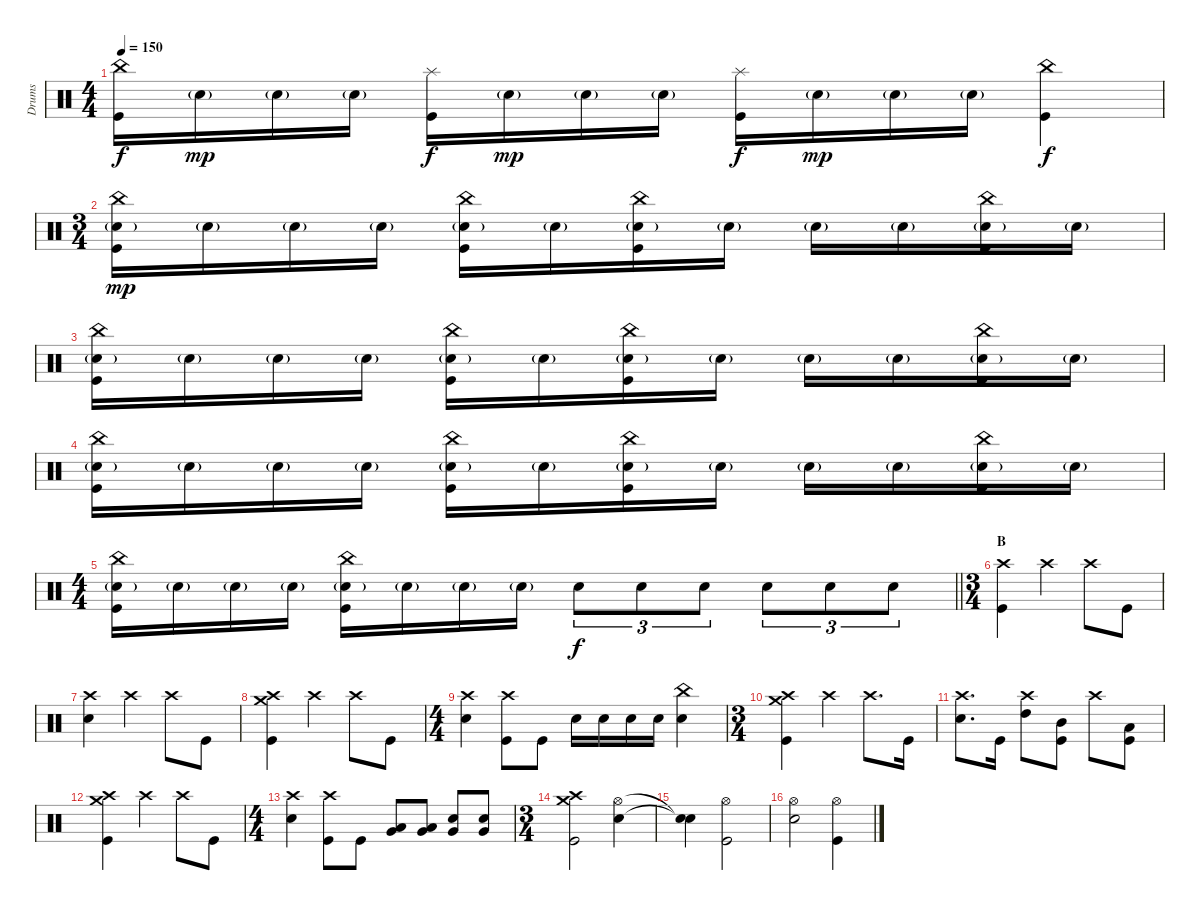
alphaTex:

\track ("Drums" "Drums") {instrument percussion}
\staff {score}
\articulation defaults
\ts (4 4)
\tempo 150
\clef neutral
\ks c
("China (hit)" "Kick (hit)").16{dy f} "Electric Snare (hit)"{g}.16{dy mp} "Electric Snare (hit)"{g}.16 "Electric Snare (hit)"{g}.16 ("Splash (hit)" "Kick (hit)").16{dy f} "Electric Snare (hit)"{g}.16{dy mp} "Electric Snare (hit)"{g}.16 "Electric Snare (hit)"{g}.16 ("Splash (hit)" "Kick (hit)").16{dy f} "Electric Snare (hit)"{g}.16{dy mp} "Electric Snare (hit)"{g}.16 "Electric Snare (hit)"{g}.16 ("China (hit)" "Kick (hit)").4{dy f} |
\ts (3 4)
("China (hit)" "Electric Snare (hit)"{g} "Kick (hit)").16{dy mp} "Electric Snare (hit)"{g}.16 "Electric Snare (hit)"{g}.16 "Electric Snare (hit)"{g}.16 ("China (hit)" "Electric Snare (hit)"{g} "Kick (hit)").16 "Electric Snare (hit)"{g}.16 ("China (hit)" "Electric Snare (hit)"{g} "Kick (hit)").16 "Electric Snare (hit)"{g}.16 "Electric Snare (hit)"{g}.16 "Electric Snare (hit)"{g}.16 ("China (hit)" "Electric Snare (hit)"{g} "Kick (hit)").16 "Electric Snare (hit)"{g}.16 |
("China (hit)" "Electric Snare (hit)"{g} "Kick (hit)").16 "Electric Snare (hit)"{g}.16 "Electric Snare (hit)"{g}.16 "Electric Snare (hit)"{g}.16 ("China (hit)" "Electric Snare (hit)"{g} "Kick (hit)").16 "Electric Snare (hit)"{g}.16 ("China (hit)" "Electric Snare (hit)"{g} "Kick (hit)").16 "Electric Snare (hit)"{g}.16 "Electric Snare (hit)"{g}.16 "Electric Snare (hit)"{g}.16 ("China (hit)" "Electric Snare (hit)"{g} "Kick (hit)").16 "Electric Snare (hit)"{g}.16 |
("China (hit)" "Electric Snare (hit)"{g} "Kick (hit)").16 "Electric Snare (hit)"{g}.16 "Electric Snare (hit)"{g}.16 "Electric Snare (hit)"{g}.16 ("China (hit)" "Electric Snare (hit)"{g} "Kick (hit)").16 "Electric Snare (hit)"{g}.16 ("China (hit)" "Electric Snare (hit)"{g} "Kick (hit)").16 "Electric Snare (hit)"{g}.16 "Electric Snare (hit)"{g}.16 "Electric Snare (hit)"{g}.16 ("China (hit)" "Electric Snare (hit)"{g} "Kick (hit)").16 "Electric Snare (hit)"{g}.16 |
\ts (4 4)
\barLineRight lightlight
("China (hit)" "Electric Snare (hit)"{g} "Kick (hit)").16 "Electric Snare (hit)"{g}.16 "Electric Snare (hit)"{g}.16 "Electric Snare (hit)"{g}.16 ("China (hit)" "Electric Snare (hit)"{g} "Kick (hit)").16 "Electric Snare (hit)"{g}.16 "Electric Snare (hit)"{g}.16 "Electric Snare (hit)"{g}.16 "Electric Snare (hit)".8{tu (3 2) dy f} "Electric Snare (hit)".8{tu (3 2)} "Electric Snare (hit)".8{tu (3 2)} "Electric Snare (hit)".8{tu (3 2)} "Electric Snare (hit)".8{tu (3 2)} "Electric Snare (hit)".8{tu (3 2)} |
\ts (3 4)
\section ("" "B")
("Crash high (hit)" "Kick (hit)").4 "Crash high (hit)".4 "Crash high (hit)".8 "Kick (hit)".8 |
("Crash high (hit)" "Electric Snare (hit)").4 "Crash high (hit)".4 "Crash high (hit)".8 "Kick (hit)".8 |
("Crash medium (hit)" "Crash high (hit)" "Kick (hit)").4 "Crash high (hit)".4 "Crash high (hit)".8 "Kick (hit)".8 |
\ts (4 4)
("Crash high (hit)" "Electric Snare (hit)").4 ("Crash high (hit)" "Kick (hit)").8 "Kick (hit)".8 "Electric Snare (hit)".16 "Electric Snare (hit)".16 "Electric Snare (hit)".16 "Electric Snare (hit)".16 ("China (hit)" "Electric Snare (hit)").4 |
\ts (3 4)
("Crash medium (hit)" "Crash high (hit)" "Kick (hit)").4 "Crash high (hit)".4 "Crash high (hit)".8{d} "Kick (hit)".16 |
("Crash high (hit)" "Electric Snare (hit)").8{d} "Kick (hit)".16 ("Crash high (hit)" "High Tom (hit)").8 ("Mid Tom (hit)" "Kick (hit)").8 "Crash high (hit)".8 ("Low Tom (hit)" "Kick (hit)").8 |
("Crash medium (hit)" "Crash high (hit)" "Kick (hit)").4 "Crash high (hit)".4 "Crash high (hit)".8 "Kick (hit)".8 |
\ts (4 4)
("Crash high (hit)" "Electric Snare (hit)").4 ("Crash high (hit)" "Kick (hit)").8 "Kick (hit)".8 ("Low Tom (hit)" "Very Low Tom (hit)").8 ("Low Tom (hit)" "Very Low Tom (hit)").8 ("Very Low Tom (hit)" "Electric Snare (hit)").8 ("Very Low Tom (hit)" "Electric Snare (hit)").8 |
\ts (3 4)
("Crash medium (hit)" "Crash high (hit)" "Kick (hit)").2 ("Hi-Hat (open)" "Electric Snare (hit)").4 |
("Snare (hit)"{t} "Snare (hit)"{t}).4 ("Hi-Hat (open)" "Kick (hit)").2 |
("Hi-Hat (open)" "Electric Snare (hit)").2 ("Hi-Hat (open)" "Kick (hit)").4
